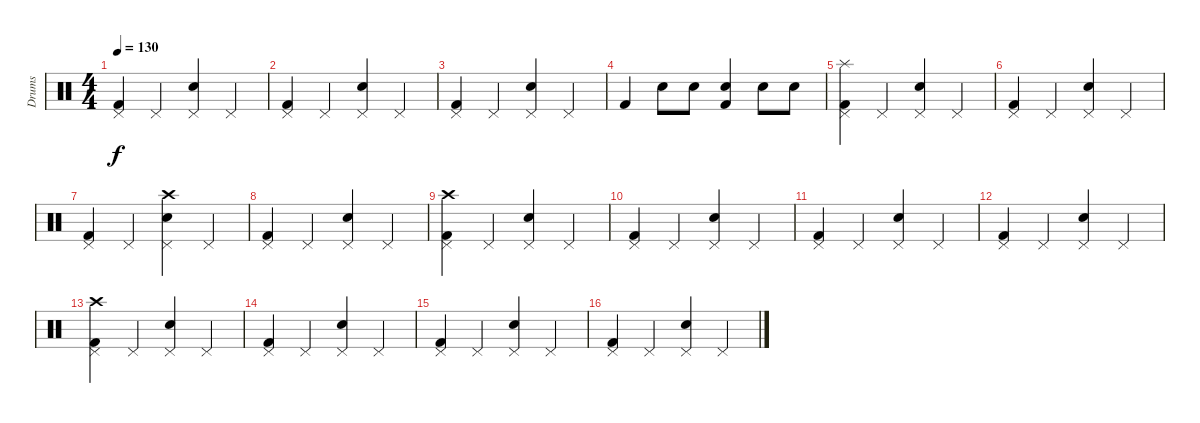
\track ("Drums" "Drums") {instrument percussion}
\staff {score}
\articulation defaults
\ts (4 4)
\tempo 130
\clef neutral
\ks c
("Pedal Hi-Hat (hit)" "Kick (hit) 2").4{dy f} "Pedal Hi-Hat (hit)".4 ("Pedal Hi-Hat (hit)" "Snare (hit) 2").4 "Pedal Hi-Hat (hit)".4 |
("Pedal Hi-Hat (hit)" "Kick (hit) 2").4 "Pedal Hi-Hat (hit)".4 ("Pedal Hi-Hat (hit)" "Snare (hit) 2").4 "Pedal Hi-Hat (hit)".4 |
("Pedal Hi-Hat (hit)" "Kick (hit) 2").4 "Pedal Hi-Hat (hit)".4 ("Pedal Hi-Hat (hit)" "Snare (hit) 2").4 "Pedal Hi-Hat (hit)".4 |
"Kick (hit) 2".4 "Snare (hit) 2".8 "Snare (hit) 2".8 ("Snare (hit) 2" "Kick (hit) 2").4 "Snare (hit) 2".8 "Snare (hit) 2".8 |
("Pedal Hi-Hat (hit)" "Splash (hit)" "Kick (hit) 2").4 "Pedal Hi-Hat (hit)".4 ("Pedal Hi-Hat (hit)" "Snare (hit) 2").4 "Pedal Hi-Hat (hit)".4 |
("Pedal Hi-Hat (hit)" "Kick (hit) 2").4 "Pedal Hi-Hat (hit)".4 ("Pedal Hi-Hat (hit)" "Snare (hit) 2").4 "Pedal Hi-Hat (hit)".4 |
("Pedal Hi-Hat (hit)" "Kick (hit) 2").4 "Pedal Hi-Hat (hit)".4 ("Pedal Hi-Hat (hit)" "Crash high (hit)" "Snare (hit) 2").4 "Pedal Hi-Hat (hit)".4 |
("Pedal Hi-Hat (hit)" "Kick (hit) 2").4 "Pedal Hi-Hat (hit)".4 ("Pedal Hi-Hat (hit)" "Snare (hit) 2").4 "Pedal Hi-Hat (hit)".4 |
("Pedal Hi-Hat (hit)" "Crash high (hit)" "Kick (hit) 2").4 "Pedal Hi-Hat (hit)".4 ("Pedal Hi-Hat (hit)" "Snare (hit) 2").4 "Pedal Hi-Hat (hit)".4 |
("Pedal Hi-Hat (hit)" "Kick (hit) 2").4 "Pedal Hi-Hat (hit)".4 ("Pedal Hi-Hat (hit)" "Snare (hit) 2").4 "Pedal Hi-Hat (hit)".4 |
("Pedal Hi-Hat (hit)" "Kick (hit) 2").4 "Pedal Hi-Hat (hit)".4 ("Pedal Hi-Hat (hit)" "Snare (hit) 2").4 "Pedal Hi-Hat (hit)".4 |
("Pedal Hi-Hat (hit)" "Kick (hit) 2").4 "Pedal Hi-Hat (hit)".4 ("Pedal Hi-Hat (hit)" "Snare (hit) 2").4 "Pedal Hi-Hat (hit)".4 |
("Pedal Hi-Hat (hit)" "Crash high (hit)" "Kick (hit) 2").4 "Pedal Hi-Hat (hit)".4 ("Pedal Hi-Hat (hit)" "Snare (hit) 2").4 "Pedal Hi-Hat (hit)".4 |
("Pedal Hi-Hat (hit)" "Kick (hit) 2").4 "Pedal Hi-Hat (hit)".4 ("Pedal Hi-Hat (hit)" "Snare (hit) 2").4 "Pedal Hi-Hat (hit)".4 |
("Pedal Hi-Hat (hit)" "Kick (hit) 2").4 "Pedal Hi-Hat (hit)".4 ("Pedal Hi-Hat (hit)" "Snare (hit) 2").4 "Pedal Hi-Hat (hit)".4 |
("Pedal Hi-Hat (hit)" "Kick (hit) 2").4 "Pedal Hi-Hat (hit)".4 ("Pedal Hi-Hat (hit)" "Snare (hit) 2").4 "Pedal Hi-Hat (hit)".4
